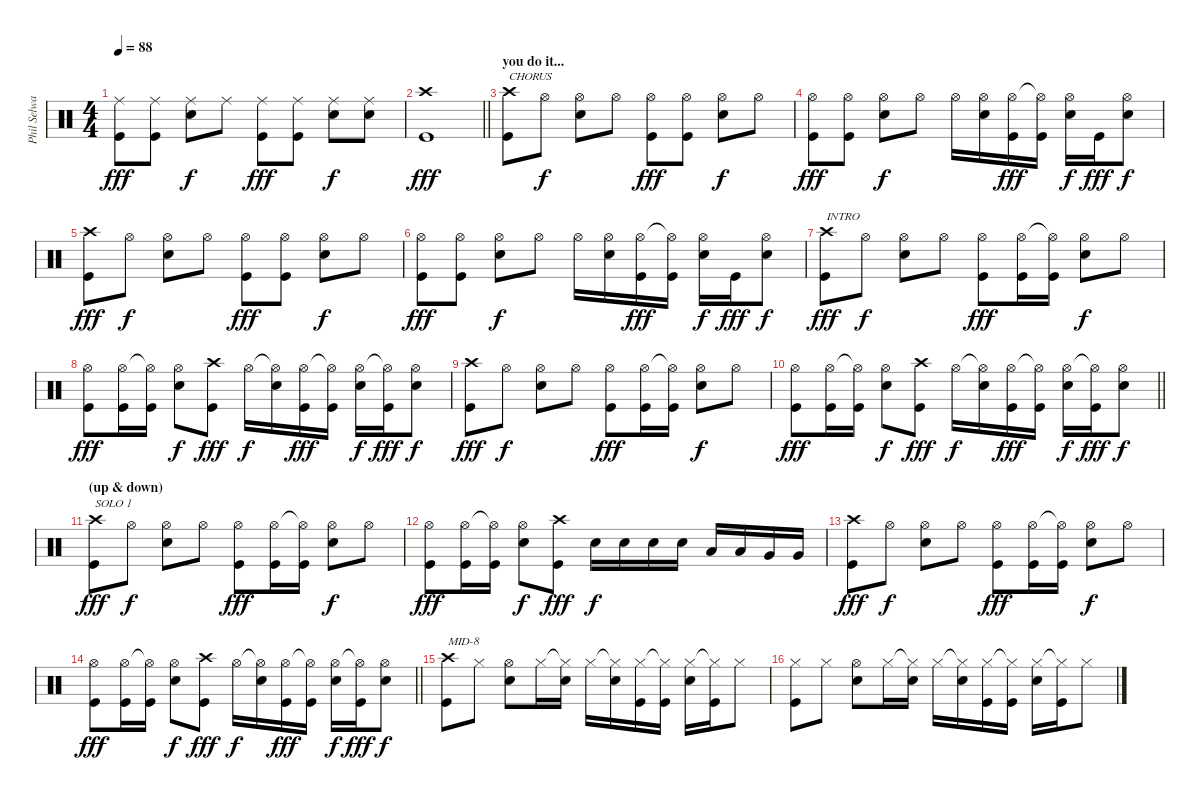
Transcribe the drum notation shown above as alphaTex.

\track ("Phil Selway" "Phil Selwa") {instrument percussion}
\staff {score}
\articulation defaults
\ts (4 4)
\tempo 88
\clef neutral
\ks c
("Ride (middle)" "Kick (hit)").8{dy fff} ("Ride (middle)" "Kick (hit)").8 ("Ride (middle)" "Snare (hit) 2").8{dy f} "Ride (middle)".8 ("Ride (middle)" "Kick (hit)").8{dy fff} ("Ride (middle)" "Kick (hit)").8 ("Ride (middle)" "Snare (hit) 2").8{dy f} ("Ride (middle)" "Snare (hit) 2").8 |
\barLineRight lightlight
("Crash high (hit)" "Kick (hit)").1{dy fff} |
\section ("" "you do it...")
("Crash high (hit)" "Kick (hit)").8{txt "CHORUS"} "Hi-Hat (open)".8{dy f} ("Hi-Hat (open)" "Snare (hit) 2").8 "Hi-Hat (open)".8 ("Hi-Hat (open)" "Kick (hit)").8{dy fff} ("Hi-Hat (open)" "Kick (hit)").8 ("Hi-Hat (open)" "Snare (hit) 2").8{dy f} "Hi-Hat (open)".8 |
("Hi-Hat (open)" "Kick (hit)").8{dy fff} ("Hi-Hat (open)" "Kick (hit)").8 ("Hi-Hat (open)" "Snare (hit) 2").8{dy f} "Hi-Hat (open)".8 "Hi-Hat (open)".16 ("Hi-Hat (open)" "Snare (hit) 2").16 ("Hi-Hat (open)" "Kick (hit)").16{dy fff} ("Hi-Hat (open)"{t} "Kick (hit)").16 ("Hi-Hat (open)" "Snare (hit) 2").16{dy f} "Kick (hit)".16{dy fff} ("Hi-Hat (open)" "Snare (hit) 2").8{dy f} |
("Crash high (hit)" "Kick (hit)").8{dy fff} "Hi-Hat (open)".8{dy f} ("Hi-Hat (open)" "Snare (hit) 2").8 "Hi-Hat (open)".8 ("Hi-Hat (open)" "Kick (hit)").8{dy fff} ("Hi-Hat (open)" "Kick (hit)").8 ("Hi-Hat (open)" "Snare (hit) 2").8{dy f} "Hi-Hat (open)".8 |
("Hi-Hat (open)" "Kick (hit)").8{dy fff} ("Hi-Hat (open)" "Kick (hit)").8 ("Hi-Hat (open)" "Snare (hit) 2").8{dy f} "Hi-Hat (open)".8 "Hi-Hat (open)".16 ("Hi-Hat (open)" "Snare (hit) 2").16 ("Hi-Hat (open)" "Kick (hit)").16{dy fff} ("Hi-Hat (open)"{t} "Kick (hit)").16 ("Hi-Hat (open)" "Snare (hit) 2").16{dy f} "Kick (hit)".16{dy fff} ("Hi-Hat (open)" "Snare (hit) 2").8{dy f} |
("Crash high (hit)" "Kick (hit)").8{txt "INTRO" dy fff} "Hi-Hat (open)".8{dy f} ("Hi-Hat (open)" "Snare (hit) 2").8 "Hi-Hat (open)".8 ("Hi-Hat (open)" "Kick (hit)").8{dy fff} ("Hi-Hat (open)" "Kick (hit)").16 ("Hi-Hat (open)"{t} "Kick (hit)").16 ("Hi-Hat (open)" "Snare (hit) 2").8{dy f} "Hi-Hat (open)".8 |
("Hi-Hat (open)" "Kick (hit)").8{dy fff} ("Hi-Hat (open)" "Kick (hit)").16 ("Hi-Hat (open)"{t} "Kick (hit)").16 ("Hi-Hat (open)" "Snare (hit) 2").8{dy f} ("Crash high (hit)" "Kick (hit)").8{dy fff} "Hi-Hat (open)".16{dy f} ("Hi-Hat (open)"{t} "Snare (hit) 2").16 ("Hi-Hat (open)" "Kick (hit)").16{dy fff} ("Hi-Hat (open)"{t} "Kick (hit)").16 ("Hi-Hat (open)" "Snare (hit) 2").16{dy f} ("Hi-Hat (open)"{t} "Kick (hit)").16{dy fff} ("Hi-Hat (open)" "Snare (hit) 2").8{dy f} |
("Crash high (hit)" "Kick (hit)").8{dy fff} "Hi-Hat (open)".8{dy f} ("Hi-Hat (open)" "Snare (hit) 2").8 "Hi-Hat (open)".8 ("Hi-Hat (open)" "Kick (hit)").8{dy fff} ("Hi-Hat (open)" "Kick (hit)").16 ("Hi-Hat (open)"{t} "Kick (hit)").16 ("Hi-Hat (open)" "Snare (hit) 2").8{dy f} "Hi-Hat (open)".8 |
\barLineRight lightlight
("Hi-Hat (open)" "Kick (hit)").8{dy fff} ("Hi-Hat (open)" "Kick (hit)").16 ("Hi-Hat (open)"{t} "Kick (hit)").16 ("Hi-Hat (open)" "Snare (hit) 2").8{dy f} ("Crash high (hit)" "Kick (hit)").8{dy fff} "Hi-Hat (open)".16{dy f} ("Hi-Hat (open)"{t} "Snare (hit) 2").16 ("Hi-Hat (open)" "Kick (hit)").16{dy fff} ("Hi-Hat (open)"{t} "Kick (hit)").16 ("Hi-Hat (open)" "Snare (hit) 2").16{dy f} ("Hi-Hat (open)"{t} "Kick (hit)").16{dy fff} ("Hi-Hat (open)" "Snare (hit) 2").8{dy f} |
\section ("" "(up & down)")
("Crash high (hit)" "Kick (hit)").8{txt "SOLO 1" dy fff} "Hi-Hat (open)".8{dy f} ("Hi-Hat (open)" "Snare (hit) 2").8 "Hi-Hat (open)".8 ("Hi-Hat (open)" "Kick (hit)").8{dy fff} ("Hi-Hat (open)" "Kick (hit)").16 ("Hi-Hat (open)"{t} "Kick (hit)").16 ("Hi-Hat (open)" "Snare (hit) 2").8{dy f} "Hi-Hat (open)".8 |
("Hi-Hat (open)" "Kick (hit)").8{dy fff} ("Hi-Hat (open)" "Kick (hit)").16 ("Hi-Hat (open)"{t} "Kick (hit)").16 ("Hi-Hat (open)" "Snare (hit) 2").8{dy f} ("Crash high (hit)" "Kick (hit)").8{dy fff} "Snare (hit) 2".16{dy f} "Snare (hit) 2".16 "Snare (hit) 2".16 "Snare (hit) 2".16 "Low Tom (hit)".16 "Low Tom (hit)".16 "Very Low Tom (hit)".16 "Very Low Tom (hit)".16 |
("Crash high (hit)" "Kick (hit)").8{dy fff} "Hi-Hat (open)".8{dy f} ("Hi-Hat (open)" "Snare (hit) 2").8 "Hi-Hat (open)".8 ("Hi-Hat (open)" "Kick (hit)").8{dy fff} ("Hi-Hat (open)" "Kick (hit)").16 ("Hi-Hat (open)"{t} "Kick (hit)").16 ("Hi-Hat (open)" "Snare (hit) 2").8{dy f} "Hi-Hat (open)".8 |
\barLineRight lightlight
("Hi-Hat (open)" "Kick (hit)").8{dy fff} ("Hi-Hat (open)" "Kick (hit)").16 ("Hi-Hat (open)"{t} "Kick (hit)").16 ("Hi-Hat (open)" "Snare (hit) 2").8{dy f} ("Crash high (hit)" "Kick (hit)").8{dy fff} "Hi-Hat (open)".16{dy f} ("Hi-Hat (open)"{t} "Snare (hit) 2").16 ("Hi-Hat (open)" "Kick (hit)").16{dy fff} ("Hi-Hat (open)"{t} "Kick (hit)").16 ("Hi-Hat (open)" "Snare (hit) 2").16{dy f} ("Hi-Hat (open)"{t} "Kick (hit)").16{dy fff} ("Hi-Hat (open)" "Snare (hit) 2").8{dy f} |
("Crash high (hit)" "Kick (hit)").8{txt "MID-8"} "Hi-Hat (closed)".8 ("Hi-Hat (open)" "Snare (hit) 2").8 "Hi-Hat (closed)".16 ("Hi-Hat (closed)"{t} "Snare (hit) 2").16 "Hi-Hat (closed)".16 ("Hi-Hat (closed)"{t} "Snare (hit) 2").16 ("Hi-Hat (closed)" "Kick (hit)").16 ("Hi-Hat (closed)"{t} "Kick (hit)").16 ("Hi-Hat (closed)" "Snare (hit) 2").16 ("Hi-Hat (closed)"{t} "Kick (hit)").16 "Hi-Hat (closed)".8 |
("Hi-Hat (closed)" "Kick (hit)").8 "Hi-Hat (closed)".8 ("Hi-Hat (open)" "Snare (hit) 2").8 "Hi-Hat (closed)".16 ("Hi-Hat (closed)"{t} "Snare (hit) 2").16 "Hi-Hat (closed)".16 ("Hi-Hat (closed)"{t} "Snare (hit) 2").16 ("Hi-Hat (closed)" "Kick (hit)").16 ("Hi-Hat (closed)"{t} "Kick (hit)").16 ("Hi-Hat (closed)" "Snare (hit) 2").16 ("Hi-Hat (closed)"{t} "Kick (hit)").16 "Hi-Hat (closed)".8
